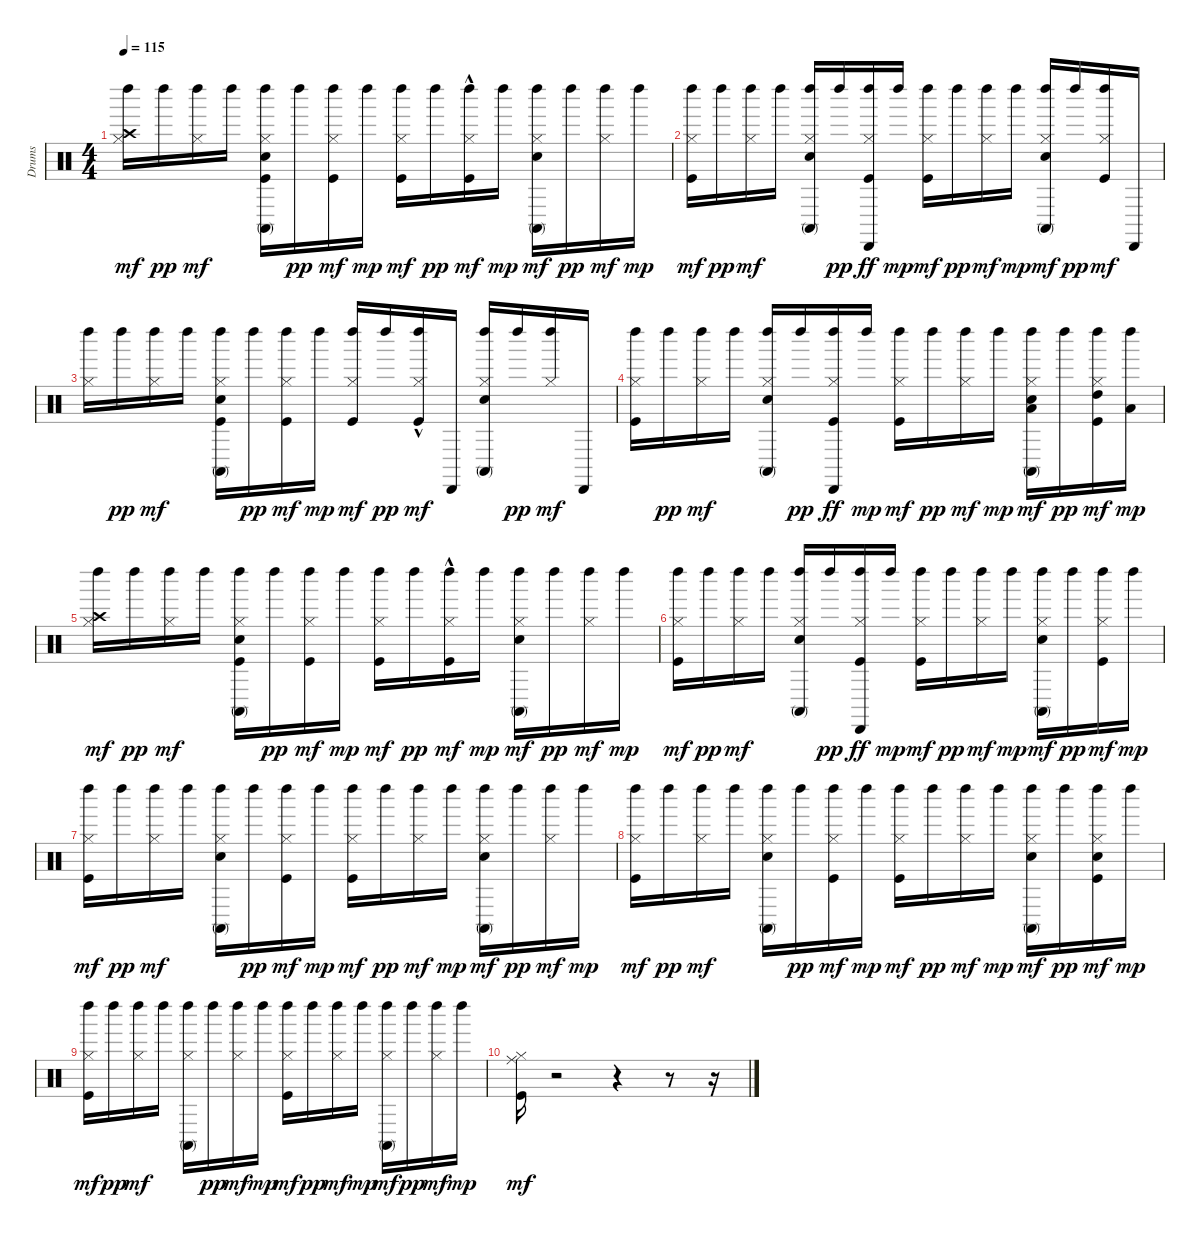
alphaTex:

\track ("Drums" "Drums") {instrument percussion}
\staff {score}
\articulation defaults
\ts (4 4)
\tempo 115
\clef neutral
\ks c
("Hi-Hat (closed)" "Crash high (hit)" "Left Maraca (hit)").16{dy mf} "Left Maraca (hit)".16{dy pp} ("Hi-Hat (closed)" "Left Maraca (hit)").16{dy mf} "Left Maraca (hit)".16 ("Kick (hit)" "Snare (hit) 2" "Hi-Hat (closed)" "Conga high (mute)" "Left Maraca (hit)").16 "Left Maraca (hit)".16{dy pp} ("Kick (hit)" "Hi-Hat (closed)" "Left Maraca (hit)").16{dy mf} "Left Maraca (hit)".16{dy mp} ("Kick (hit)" "Hi-Hat (closed)" "Left Maraca (hit)").16{dy mf} "Left Maraca (hit)".16{dy pp} ("Kick (hit)"{hac} "Hi-Hat (closed)" "Left Maraca (hit)").16{dy mf} "Left Maraca (hit)".16{dy mp} ("Snare (hit) 2" "Hi-Hat (closed)" "Conga high (mute)" "Left Maraca (hit)").16{dy mf} "Left Maraca (hit)".16{dy pp} ("Hi-Hat (closed)" "Left Maraca (hit)").16{dy mf} "Left Maraca (hit)".16{dy mp} |
("Kick (hit)" "Hi-Hat (closed)" "Left Maraca (hit)").16{dy mf} "Left Maraca (hit)".16{dy pp} ("Hi-Hat (closed)" "Left Maraca (hit)").16{dy mf} "Left Maraca (hit)".16 ("Snare (hit) 2" "Hi-Hat (closed)" "Conga high (mute)" "Left Maraca (hit)").16 "Left Maraca (hit)".16{dy pp} ("Kick (hit)" "Hi-Hat (closed)" "Left Maraca (hit)" "Cabasa (hit)").16{dy ff} "Left Maraca (hit)".16{dy mp} ("Kick (hit)" "Hi-Hat (closed)" "Left Maraca (hit)").16{dy mf} "Left Maraca (hit)".16{dy pp} ("Hi-Hat (closed)" "Left Maraca (hit)").16{dy mf} "Left Maraca (hit)".16{dy mp} ("Snare (hit) 2" "Hi-Hat (closed)" "Conga high (mute)" "Left Maraca (hit)").16{dy mf} "Left Maraca (hit)".16{dy pp} ("Kick (hit)" "Hi-Hat (closed)" "Left Maraca (hit)").16{dy mf} "Cabasa (hit)".16 |
("Hi-Hat (closed)" "Left Maraca (hit)").16 "Left Maraca (hit)".16{dy pp} ("Hi-Hat (closed)" "Left Maraca (hit)").16{dy mf} "Left Maraca (hit)".16 ("Kick (hit)" "Snare (hit) 2" "Hi-Hat (closed)" "Conga high (mute)" "Left Maraca (hit)").16 "Left Maraca (hit)".16{dy pp} ("Kick (hit)" "Hi-Hat (closed)" "Left Maraca (hit)").16{dy mf} "Left Maraca (hit)".16{dy mp} ("Kick (hit)" "Hi-Hat (closed)" "Left Maraca (hit)").16{dy mf} "Left Maraca (hit)".16{dy pp} ("Kick (hit)"{hac} "Hi-Hat (closed)" "Left Maraca (hit)").16{dy mf} "Cabasa (hit)".16 ("Snare (hit) 2" "Hi-Hat (closed)" "Conga high (mute)" "Left Maraca (hit)").16 "Left Maraca (hit)".16{dy pp} ("Hi-Hat (closed)" "Left Maraca (hit)").16{dy mf} "Cabasa (hit)".16 |
("Kick (hit)" "Hi-Hat (closed)" "Left Maraca (hit)").16 "Left Maraca (hit)".16{dy pp} ("Hi-Hat (closed)" "Left Maraca (hit)").16{dy mf} "Left Maraca (hit)".16 ("Snare (hit) 2" "Hi-Hat (closed)" "Conga high (mute)" "Left Maraca (hit)").16 "Left Maraca (hit)".16{dy pp} ("Kick (hit)" "Hi-Hat (closed)" "Left Maraca (hit)" "Cabasa (hit)").16{dy ff} "Left Maraca (hit)".16{dy mp} ("Kick (hit)" "Hi-Hat (closed)" "Left Maraca (hit)").16{dy mf} "Left Maraca (hit)".16{dy pp} ("Hi-Hat (closed)" "Left Maraca (hit)").16{dy mf} "Left Maraca (hit)".16{dy mp} ("Snare (hit) 2" "Hi-Hat (closed)" "Low Floor Tom (hit)" "Conga high (mute)" "Left Maraca (hit)").16{dy mf} "Left Maraca (hit)".16{dy pp} ("Kick (hit)" "Hi-Hat (closed)" "High Tom (hit)" "Left Maraca (hit)").16{dy mf} ("Low Tom (hit)" "Left Maraca (hit)").16{dy mp} |
("Hi-Hat (closed)" "Crash high (hit)" "Left Maraca (hit)").16{dy mf} "Left Maraca (hit)".16{dy pp} ("Hi-Hat (closed)" "Left Maraca (hit)").16{dy mf} "Left Maraca (hit)".16 ("Kick (hit)" "Snare (hit) 2" "Hi-Hat (closed)" "Conga high (mute)" "Left Maraca (hit)").16 "Left Maraca (hit)".16{dy pp} ("Kick (hit)" "Hi-Hat (closed)" "Left Maraca (hit)").16{dy mf} "Left Maraca (hit)".16{dy mp} ("Kick (hit)" "Hi-Hat (closed)" "Left Maraca (hit)").16{dy mf} "Left Maraca (hit)".16{dy pp} ("Kick (hit)"{hac} "Hi-Hat (closed)" "Left Maraca (hit)").16{dy mf} "Left Maraca (hit)".16{dy mp} ("Snare (hit) 2" "Hi-Hat (closed)" "Conga high (mute)" "Left Maraca (hit)").16{dy mf} "Left Maraca (hit)".16{dy pp} ("Hi-Hat (closed)" "Left Maraca (hit)").16{dy mf} "Left Maraca (hit)".16{dy mp} |
("Kick (hit)" "Hi-Hat (closed)" "Left Maraca (hit)").16{dy mf} "Left Maraca (hit)".16{dy pp} ("Hi-Hat (closed)" "Left Maraca (hit)").16{dy mf} "Left Maraca (hit)".16 ("Snare (hit) 2" "Hi-Hat (closed)" "Conga high (mute)" "Left Maraca (hit)").16 "Left Maraca (hit)".16{dy pp} ("Kick (hit)" "Hi-Hat (closed)" "Left Maraca (hit)" "Cabasa (hit)").16{dy ff} "Left Maraca (hit)".16{dy mp} ("Kick (hit)" "Hi-Hat (closed)" "Left Maraca (hit)").16{dy mf} "Left Maraca (hit)".16{dy pp} ("Hi-Hat (closed)" "Left Maraca (hit)").16{dy mf} "Left Maraca (hit)".16{dy mp} ("Snare (hit) 2" "Hi-Hat (closed)" "Conga high (mute)" "Left Maraca (hit)").16{dy mf} "Left Maraca (hit)".16{dy pp} ("Kick (hit)" "Hi-Hat (closed)" "Left Maraca (hit)").16{dy mf} "Left Maraca (hit)".16{dy mp} |
("Kick (hit)" "Hi-Hat (closed)" "Left Maraca (hit)").16{dy mf} "Left Maraca (hit)".16{dy pp} ("Hi-Hat (closed)" "Left Maraca (hit)").16{dy mf} "Left Maraca (hit)".16 ("Snare (hit) 2" "Hi-Hat (closed)" "Conga high (mute)" "Left Maraca (hit)").16 "Left Maraca (hit)".16{dy pp} ("Kick (hit)" "Hi-Hat (closed)" "Left Maraca (hit)").16{dy mf} "Left Maraca (hit)".16{dy mp} ("Kick (hit)" "Hi-Hat (closed)" "Left Maraca (hit)").16{dy mf} "Left Maraca (hit)".16{dy pp} ("Hi-Hat (closed)" "Left Maraca (hit)").16{dy mf} "Left Maraca (hit)".16{dy mp} ("Snare (hit) 2" "Hi-Hat (closed)" "Conga high (mute)" "Left Maraca (hit)").16{dy mf} "Left Maraca (hit)".16{dy pp} ("Hi-Hat (closed)" "Left Maraca (hit)").16{dy mf} "Left Maraca (hit)".16{dy mp} |
("Kick (hit)" "Hi-Hat (closed)" "Left Maraca (hit)").16{dy mf} "Left Maraca (hit)".16{dy pp} ("Hi-Hat (closed)" "Left Maraca (hit)").16{dy mf} "Left Maraca (hit)".16 ("Snare (hit) 2" "Hi-Hat (closed)" "Conga high (mute)" "Left Maraca (hit)").16 "Left Maraca (hit)".16{dy pp} ("Kick (hit)" "Hi-Hat (closed)" "Left Maraca (hit)").16{dy mf} "Left Maraca (hit)".16{dy mp} ("Kick (hit)" "Hi-Hat (closed)" "Left Maraca (hit)").16{dy mf} "Left Maraca (hit)".16{dy pp} ("Hi-Hat (closed)" "Left Maraca (hit)").16{dy mf} "Left Maraca (hit)".16{dy mp} ("Snare (hit) 2" "Hi-Hat (closed)" "Conga high (mute)" "Left Maraca (hit)").16{dy mf} "Left Maraca (hit)".16{dy pp} ("Kick (hit)" "Snare (hit) 2" "Hi-Hat (closed)" "Left Maraca (hit)").16{dy mf} "Left Maraca (hit)".16{dy mp} |
("Kick (hit)" "Hi-Hat (closed)" "Left Maraca (hit)").16{dy mf} "Left Maraca (hit)".16{dy pp} ("Hi-Hat (closed)" "Left Maraca (hit)").16{dy mf} "Left Maraca (hit)".16 ("Hi-Hat (closed)" "Conga high (mute)" "Left Maraca (hit)").16 "Left Maraca (hit)".16{dy pp} ("Hi-Hat (closed)" "Left Maraca (hit)").16{dy mf} "Left Maraca (hit)".16{dy mp} ("Kick (hit)" "Hi-Hat (closed)" "Left Maraca (hit)").16{dy mf} "Left Maraca (hit)".16{dy pp} ("Hi-Hat (closed)" "Left Maraca (hit)").16{dy mf} "Left Maraca (hit)".16{dy mp} ("Hi-Hat (closed)" "Conga high (mute)" "Left Maraca (hit)").16{dy mf} "Left Maraca (hit)".16{dy pp} ("Hi-Hat (closed)" "Left Maraca (hit)").16{dy mf} "Left Maraca (hit)".16{dy mp} |
("Kick (hit)" "Hi-Hat (closed)" "Ride (middle)").16{dy mf} r.2 r.4 r.8 r.16
